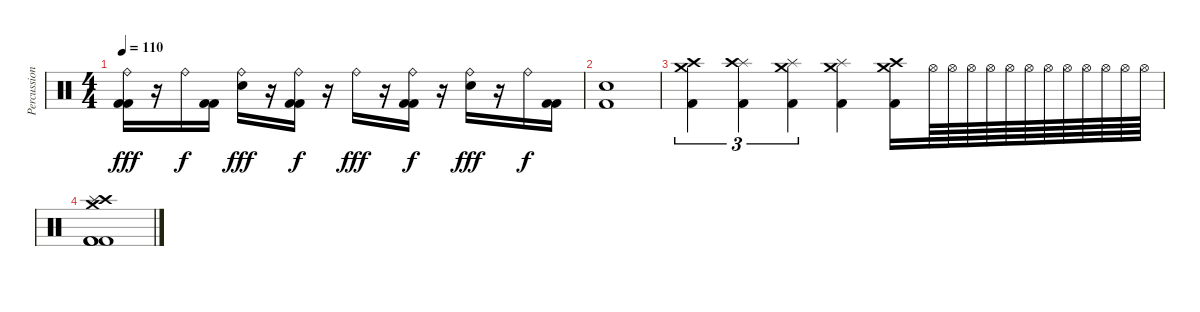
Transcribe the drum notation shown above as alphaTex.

\track ("Percussion" "Percussion") {instrument percussion}
\staff {score}
\articulation defaults
\ts (4 4)
\tempo 110
\clef neutral
\ks c
("Ride (bell)" "Kick (hit) 2" "Kick (hit) 2").16{dy fff} r.16 "Ride (bell)".16{dy f} ("Kick (hit) 2" "Kick (hit) 2").16 ("Ride (bell)" "Electric Snare (hit)").16{dy fff} r.16 ("Ride (bell)" "Kick (hit) 2" "Kick (hit) 2").16{dy f} r.16 "Ride (bell)".16{dy fff} r.16 ("Ride (bell)" "Kick (hit) 2" "Kick (hit) 2").16{dy f} r.16 ("Ride (bell)" "Electric Snare (hit)").16{dy fff} r.16 "Ride (bell)".16{dy f} ("Kick (hit) 2" "Kick (hit) 2").16 |
("Electric Snare (hit)" "Kick (hit) 2").1 |
("Crash high (hit)" "Crash medium (hit)" "Kick (hit) 2").4{tu (3 2)} ("Splash (hit)" "Crash high (hit)" "Kick (hit) 2").4{tu (3 2)} ("Crash medium (hit)" "Splash (hit)" "Kick (hit) 2").4{tu (3 2)} ("Splash (hit)" "Crash medium (hit)" "Kick (hit) 2").4 ("Crash high (hit)" "Crash medium (hit)" "Kick (hit) 2").16 "Hi-Hat (open)".64 "Hi-Hat (open)".64 "Hi-Hat (open)".64 "Hi-Hat (open)".64 "Hi-Hat (open)".64 "Hi-Hat (open)".64 "Hi-Hat (open)".64 "Hi-Hat (open)".64 "Hi-Hat (open)".64 "Hi-Hat (open)".64 "Hi-Hat (open)".64 "Hi-Hat (open)".64 |
("Crash high (hit)" "Crash medium (hit)" "Splash (hit)" "Kick (hit) 2" "Kick (hit) 2" "Kick (hit) 2").1
